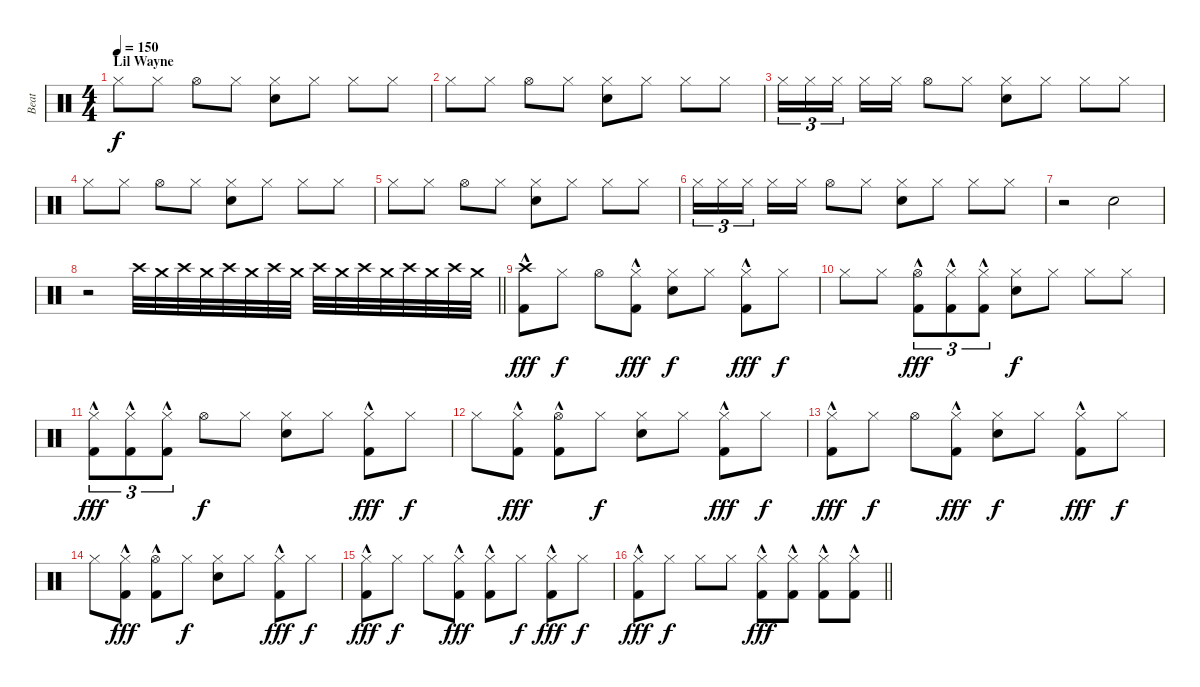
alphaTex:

\track ("Beat" "Beat") {instrument percussion}
\staff {score}
\articulation defaults
\ts (4 4)
\section ("" "Lil Wayne")
\tempo 150
\clef neutral
\ks c "Hi-Hat (closed)".8{dy f} "Hi-Hat (closed)".8 "Hi-Hat (open)".8 "Hi-Hat (closed)".8
("Hi-Hat (closed)" "Hand Clap (hit)").8 "Hi-Hat (closed)".8 "Hi-Hat (closed)".8 "Hi-Hat (closed)".8 |
"Hi-Hat (closed)".8 "Hi-Hat (closed)".8 "Hi-Hat (open)".8 "Hi-Hat (closed)".8 ("Hi-Hat (closed)" "Hand Clap (hit)").8 "Hi-Hat (closed)".8 "Hi-Hat (closed)".8 "Hi-Hat (closed)".8 |
"Hi-Hat (closed)".16{tu (3 2)} "Hi-Hat (closed)".16{tu (3 2)} "Hi-Hat (closed)".16{tu (3 2) beam splitsecondary} "Hi-Hat (closed)".16 "Hi-Hat (closed)".16 "Hi-Hat (open)".8 "Hi-Hat (closed)".8 ("Hi-Hat (closed)" "Hand Clap (hit)").8 "Hi-Hat (closed)".8 "Hi-Hat (closed)".8 "Hi-Hat (closed)".8 |
"Hi-Hat (closed)".8 "Hi-Hat (closed)".8 "Hi-Hat (open)".8 "Hi-Hat (closed)".8 ("Hi-Hat (closed)" "Hand Clap (hit)").8 "Hi-Hat (closed)".8 "Hi-Hat (closed)".8 "Hi-Hat (closed)".8 |
"Hi-Hat (closed)".8 "Hi-Hat (closed)".8 "Hi-Hat (open)".8 "Hi-Hat (closed)".8 ("Hi-Hat (closed)" "Hand Clap (hit)").8 "Hi-Hat (closed)".8 "Hi-Hat (closed)".8 "Hi-Hat (closed)".8 |
"Hi-Hat (closed)".16{tu (3 2)} "Hi-Hat (closed)".16{tu (3 2)} "Hi-Hat (closed)".16{tu (3 2) beam splitsecondary} "Hi-Hat (closed)".16 "Hi-Hat (closed)".16 "Hi-Hat (open)".8 "Hi-Hat (closed)".8 ("Hi-Hat (closed)" "Hand Clap (hit)").8 "Hi-Hat (closed)".8 "Hi-Hat (closed)".8 "Hi-Hat (closed)".8 |
r.2 "Hand Clap (hit)".2 |
\barLineRight lightlight
r.2{volume 1} "Crash high (hit)".32{volume 16} "Crash medium (hit)".32 "Crash high (hit)".32 "Crash medium (hit)".32 "Crash high (hit)".32 "Crash medium (hit)".32 "Crash high (hit)".32 "Crash medium (hit)".32 "Crash high (hit)".32 "Crash medium (hit)".32 "Crash high (hit)".32 "Crash medium (hit)".32 "Crash high (hit)".32 "Crash medium (hit)".32 "Crash high (hit)".32 "Crash medium (hit)".32 |
("Crash high (hit)" "Kick (hit) 2"{hac}).8{dy fff} "Hi-Hat (closed)".8{dy f} "Hi-Hat (open)".8 ("Hi-Hat (closed)" "Kick (hit) 2"{hac}).8{dy fff} ("Hi-Hat (closed)" "Hand Clap (hit)").8{dy f} "Hi-Hat (closed)".8 ("Hi-Hat (closed)" "Kick (hit) 2"{hac}).8{dy fff} "Hi-Hat (closed)".8{dy f} |
"Hi-Hat (closed)".8 "Hi-Hat (closed)".8 ("Hi-Hat (open)" "Kick (hit) 2"{hac}).8{tu (3 2) dy fff} ("Hi-Hat (closed)" "Kick (hit) 2"{hac}).8{tu (3 2)} ("Hi-Hat (closed)" "Kick (hit) 2"{hac}).8{tu (3 2)} ("Hi-Hat (closed)" "Hand Clap (hit)").8{dy f} "Hi-Hat (closed)".8 "Hi-Hat (closed)".8 "Hi-Hat (closed)".8 |
("Hi-Hat (closed)" "Kick (hit) 2"{hac}).8{tu (3 2) dy fff} ("Hi-Hat (closed)" "Kick (hit) 2"{hac}).8{tu (3 2)} ("Hi-Hat (closed)" "Kick (hit) 2"{hac}).8{tu (3 2)} "Hi-Hat (open)".8{dy f} "Hi-Hat (closed)".8 ("Hi-Hat (closed)" "Hand Clap (hit)").8 "Hi-Hat (closed)".8 ("Hi-Hat (closed)" "Kick (hit) 2"{hac}).8{dy fff} "Hi-Hat (closed)".8{dy f} |
"Hi-Hat (closed)".8 ("Hi-Hat (closed)" "Kick (hit) 2"{hac}).8{dy fff} ("Hi-Hat (open)" "Kick (hit) 2"{hac}).8 "Hi-Hat (closed)".8{dy f} ("Hi-Hat (closed)" "Hand Clap (hit)").8 "Hi-Hat (closed)".8 ("Hi-Hat (closed)" "Kick (hit) 2"{hac}).8{dy fff} "Hi-Hat (closed)".8{dy f} |
("Hi-Hat (closed)" "Kick (hit) 2"{hac}).8{dy fff} "Hi-Hat (closed)".8{dy f} "Hi-Hat (open)".8 ("Hi-Hat (closed)" "Kick (hit) 2"{hac}).8{dy fff} ("Hi-Hat (closed)" "Hand Clap (hit)").8{dy f} "Hi-Hat (closed)".8 ("Hi-Hat (closed)" "Kick (hit) 2"{hac}).8{dy fff} "Hi-Hat (closed)".8{dy f} |
"Hi-Hat (closed)".8 ("Hi-Hat (closed)" "Kick (hit) 2"{hac}).8{dy fff} ("Hi-Hat (open)" "Kick (hit) 2"{hac}).8 "Hi-Hat (closed)".8{dy f} ("Hi-Hat (closed)" "Hand Clap (hit)").8 "Hi-Hat (closed)".8 ("Hi-Hat (closed)" "Kick (hit) 2"{hac}).8{dy fff} "Hi-Hat (closed)".8{dy f} |
("Hi-Hat (closed)" "Kick (hit) 2"{hac}).8{dy fff} "Hi-Hat (closed)".8{dy f} "Hi-Hat (closed)".8 ("Hi-Hat (closed)" "Kick (hit) 2"{hac}).8{dy fff} ("Hi-Hat (closed)" "Kick (hit) 2"{hac}).8 "Hi-Hat (closed)".8{dy f} ("Hi-Hat (closed)" "Kick (hit) 2"{hac}).8{dy fff} "Hi-Hat (closed)".8{dy f} |
\barLineRight lightlight
("Hi-Hat (closed)" "Kick (hit) 2"{hac}).8{dy fff} "Hi-Hat (closed)".8{dy f} "Hi-Hat (closed)".8 "Hi-Hat (closed)".8 ("Hi-Hat (closed)"{hac} "Kick (hit) 2"{hac}).8{dy fff} ("Hi-Hat (closed)"{hac} "Kick (hit) 2"{hac}).8 ("Hi-Hat (closed)" "Kick (hit) 2"{hac}).8 ("Hi-Hat (closed)" "Kick (hit) 2"{hac}).8
